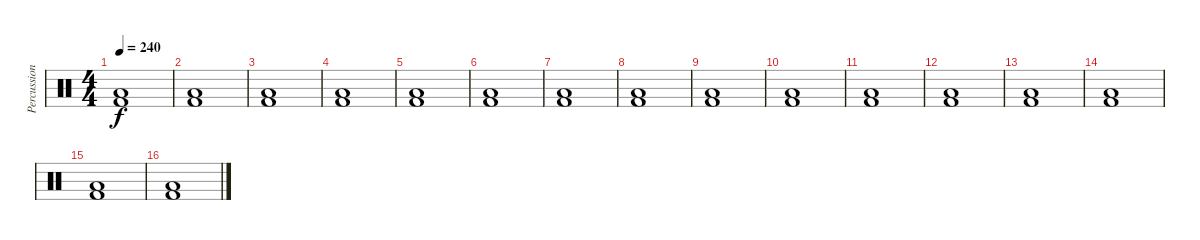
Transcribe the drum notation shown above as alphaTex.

\track ("Percussion" "Percussion") {instrument percussion}
\staff {score}
\articulation defaults
\ts (4 4)
\tempo 240
\clef neutral
\ks c
("Kick (hit) 2" "Low Floor Tom (hit)").1{dy f} |
("Kick (hit) 2" "Low Floor Tom (hit)").1 |
("Kick (hit) 2" "Low Floor Tom (hit)").1 |
("Kick (hit) 2" "Low Floor Tom (hit)").1 |
("Kick (hit) 2" "Low Floor Tom (hit)").1 |
("Kick (hit) 2" "Low Floor Tom (hit)").1 |
("Kick (hit) 2" "Low Floor Tom (hit)").1 |
("Kick (hit) 2" "Low Floor Tom (hit)").1 |
("Kick (hit) 2" "Low Floor Tom (hit)").1 |
("Kick (hit) 2" "Low Floor Tom (hit)").1 |
("Kick (hit) 2" "Low Floor Tom (hit)").1 |
("Kick (hit) 2" "Low Floor Tom (hit)").1 |
("Kick (hit) 2" "Low Floor Tom (hit)").1 |
("Kick (hit) 2" "Low Floor Tom (hit)").1 |
("Kick (hit) 2" "Low Floor Tom (hit)").1 |
("Kick (hit) 2" "Low Floor Tom (hit)").1
